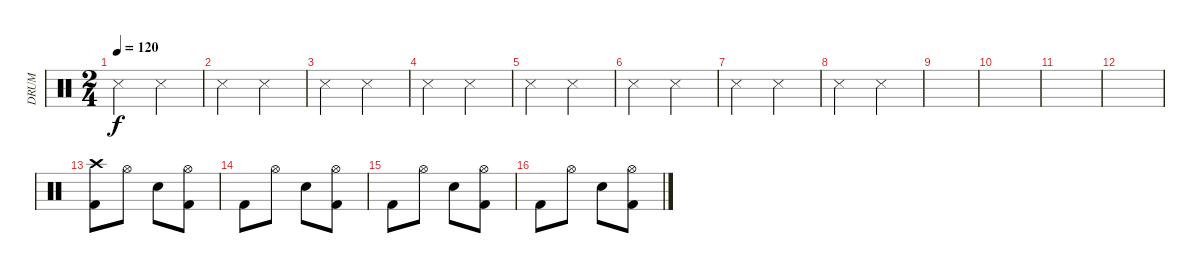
\track ("DRUM" "DRUM") {instrument percussion}
\staff {score}
\articulation defaults
\ts (2 4)
\tempo 120
\clef neutral
\ks c "Snare (side stick) 3".4{dy f} "Snare (side stick) 3".4
|
"Snare (side stick) 3".4 "Snare (side stick) 3".4 |
"Snare (side stick) 3".4 "Snare (side stick) 3".4 |
"Snare (side stick) 3".4 "Snare (side stick) 3".4 |
"Snare (side stick) 3".4 "Snare (side stick) 3".4 |
"Snare (side stick) 3".4 "Snare (side stick) 3".4 |
"Snare (side stick) 3".4 "Snare (side stick) 3".4 |
"Snare (side stick) 3".4 "Snare (side stick) 3".4 |
|
|
|
|
("Crash high (hit)" "Kick (hit) 2").8 "Hi-Hat (open)".8 "Electric Snare (hit)".8 ("Kick (hit) 2" "Hi-Hat (open)").8 |
"Kick (hit) 2".8 "Hi-Hat (open)".8 "Electric Snare (hit)".8 ("Kick (hit) 2" "Hi-Hat (open)").8 |
"Kick (hit) 2".8 "Hi-Hat (open)".8 "Electric Snare (hit)".8 ("Kick (hit) 2" "Hi-Hat (open)").8 |
"Kick (hit) 2".8 "Hi-Hat (open)".8 "Electric Snare (hit)".8 ("Kick (hit) 2" "Hi-Hat (open)").8
